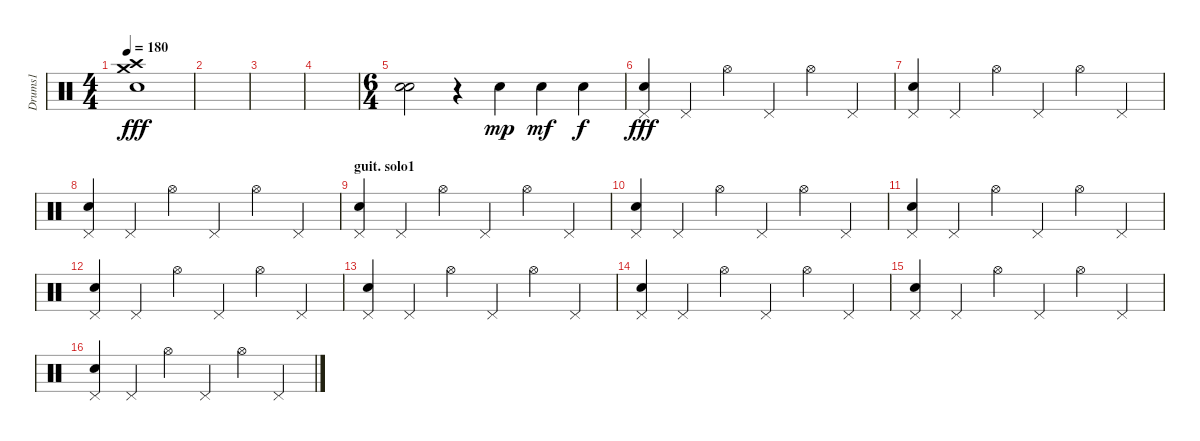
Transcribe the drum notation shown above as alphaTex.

\track ("Drums1" "Drums1") {instrument percussion}
\staff {score}
\articulation defaults
\ts (4 4)
\tempo 180
\clef neutral
\ks c
("Crash high (hit)" "Crash medium (hit)" "Electric Snare (hit)").1{dy fff} |
|
|
|
\ts (6 4)
("Snare (hit) 2" "Electric Snare (hit)").2 r.4 "Electric Snare (hit)".4{dy mp} "Electric Snare (hit)".4{dy mf} "Electric Snare (hit)".4{dy f} |
("Electric Snare (hit)" "Pedal Hi-Hat (hit)").4{dy fff} "Pedal Hi-Hat (hit)".4 "Hi-Hat (open)".4 "Pedal Hi-Hat (hit)".4 "Hi-Hat (open)".4 "Pedal Hi-Hat (hit)".4 |
("Electric Snare (hit)" "Pedal Hi-Hat (hit)").4 "Pedal Hi-Hat (hit)".4 "Hi-Hat (open)".4 "Pedal Hi-Hat (hit)".4 "Hi-Hat (open)".4 "Pedal Hi-Hat (hit)".4 |
("Electric Snare (hit)" "Pedal Hi-Hat (hit)").4 "Pedal Hi-Hat (hit)".4 "Hi-Hat (open)".4 "Pedal Hi-Hat (hit)".4 "Hi-Hat (open)".4 "Pedal Hi-Hat (hit)".4 |
\section ("" "guit. solo1")
("Electric Snare (hit)" "Pedal Hi-Hat (hit)").4 "Pedal Hi-Hat (hit)".4 "Hi-Hat (open)".4 "Pedal Hi-Hat (hit)".4 "Hi-Hat (open)".4 "Pedal Hi-Hat (hit)".4 |
("Electric Snare (hit)" "Pedal Hi-Hat (hit)").4 "Pedal Hi-Hat (hit)".4 "Hi-Hat (open)".4 "Pedal Hi-Hat (hit)".4 "Hi-Hat (open)".4 "Pedal Hi-Hat (hit)".4 |
("Electric Snare (hit)" "Pedal Hi-Hat (hit)").4 "Pedal Hi-Hat (hit)".4 "Hi-Hat (open)".4 "Pedal Hi-Hat (hit)".4 "Hi-Hat (open)".4 "Pedal Hi-Hat (hit)".4 |
("Electric Snare (hit)" "Pedal Hi-Hat (hit)").4 "Pedal Hi-Hat (hit)".4 "Hi-Hat (open)".4 "Pedal Hi-Hat (hit)".4 "Hi-Hat (open)".4 "Pedal Hi-Hat (hit)".4 |
("Electric Snare (hit)" "Pedal Hi-Hat (hit)").4 "Pedal Hi-Hat (hit)".4 "Hi-Hat (open)".4 "Pedal Hi-Hat (hit)".4 "Hi-Hat (open)".4 "Pedal Hi-Hat (hit)".4 |
("Electric Snare (hit)" "Pedal Hi-Hat (hit)").4 "Pedal Hi-Hat (hit)".4 "Hi-Hat (open)".4 "Pedal Hi-Hat (hit)".4 "Hi-Hat (open)".4 "Pedal Hi-Hat (hit)".4 |
("Electric Snare (hit)" "Pedal Hi-Hat (hit)").4 "Pedal Hi-Hat (hit)".4 "Hi-Hat (open)".4 "Pedal Hi-Hat (hit)".4 "Hi-Hat (open)".4 "Pedal Hi-Hat (hit)".4 |
("Electric Snare (hit)" "Pedal Hi-Hat (hit)").4 "Pedal Hi-Hat (hit)".4 "Hi-Hat (open)".4 "Pedal Hi-Hat (hit)".4 "Hi-Hat (open)".4 "Pedal Hi-Hat (hit)".4
